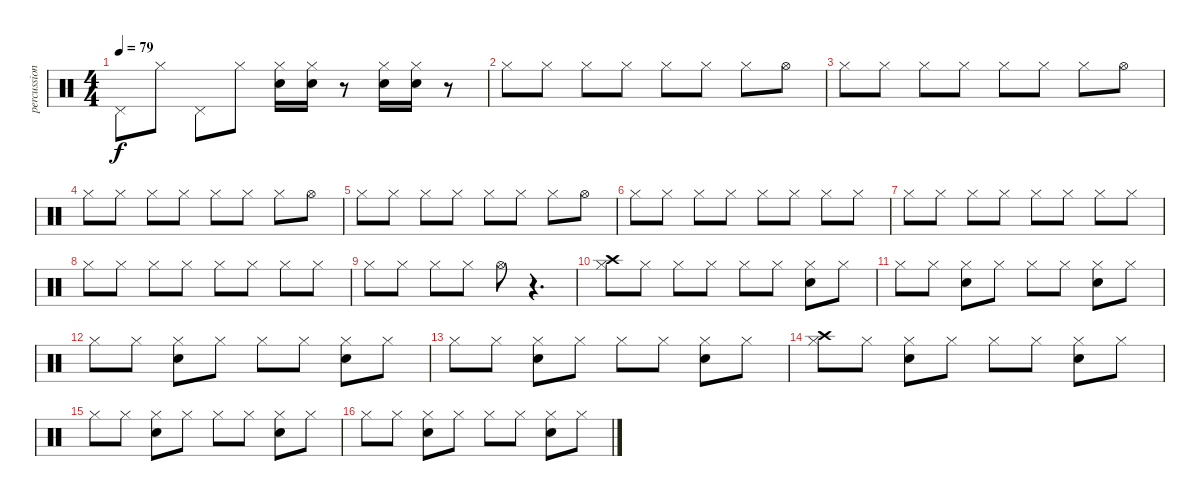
\track ("percussion" "percussion") {instrument percussion}
\staff {score}
\articulation defaults
\ts (4 4)
\tempo 79
\clef neutral
\ks c "Pedal Hi-Hat (hit)".8{dy f} "Hi-Hat (closed)".8 "Pedal Hi-Hat (hit)".8 "Hi-Hat (closed)".8
("Hi-Hat (closed)" "Snare (hit) 2").16 ("Hi-Hat (closed)" "Snare (hit) 2").16 r.8 ("Hi-Hat (closed)" "Snare (hit) 2").16 ("Hi-Hat (closed)" "Snare (hit) 2").16 r.8 |
"Hi-Hat (closed)".8 "Hi-Hat (closed)".8 "Hi-Hat (closed)".8 "Hi-Hat (closed)".8 "Hi-Hat (closed)".8 "Hi-Hat (closed)".8 "Hi-Hat (closed)".8 "Hi-Hat (open)".8 |
"Hi-Hat (closed)".8 "Hi-Hat (closed)".8 "Hi-Hat (closed)".8 "Hi-Hat (closed)".8 "Hi-Hat (closed)".8 "Hi-Hat (closed)".8 "Hi-Hat (closed)".8 "Hi-Hat (open)".8 |
"Hi-Hat (closed)".8 "Hi-Hat (closed)".8 "Hi-Hat (closed)".8 "Hi-Hat (closed)".8 "Hi-Hat (closed)".8 "Hi-Hat (closed)".8 "Hi-Hat (closed)".8 "Hi-Hat (open)".8 |
"Hi-Hat (closed)".8 "Hi-Hat (closed)".8 "Hi-Hat (closed)".8 "Hi-Hat (closed)".8 "Hi-Hat (closed)".8 "Hi-Hat (closed)".8 "Hi-Hat (closed)".8 "Hi-Hat (open)".8 |
"Hi-Hat (closed)".8 "Hi-Hat (closed)".8 "Hi-Hat (closed)".8 "Hi-Hat (closed)".8 "Hi-Hat (closed)".8 "Hi-Hat (closed)".8 "Hi-Hat (closed)".8 "Hi-Hat (closed)".8 |
"Hi-Hat (closed)".8 "Hi-Hat (closed)".8 "Hi-Hat (closed)".8 "Hi-Hat (closed)".8 "Hi-Hat (closed)".8 "Hi-Hat (closed)".8 "Hi-Hat (closed)".8 "Hi-Hat (closed)".8 |
"Hi-Hat (closed)".8 "Hi-Hat (closed)".8 "Hi-Hat (closed)".8 "Hi-Hat (closed)".8 "Hi-Hat (closed)".8 "Hi-Hat (closed)".8 "Hi-Hat (closed)".8 "Hi-Hat (closed)".8 |
"Hi-Hat (closed)".8 "Hi-Hat (closed)".8 "Hi-Hat (closed)".8 "Hi-Hat (closed)".8 "Hi-Hat (open)".8 r.4{d} |
("Crash high (hit)" "Hi-Hat (closed)").8 "Hi-Hat (closed)".8 "Hi-Hat (closed)".8 "Hi-Hat (closed)".8 "Hi-Hat (closed)".8 "Hi-Hat (closed)".8 ("Hi-Hat (closed)" "Snare (hit) 2").8 "Hi-Hat (closed)".8 |
"Hi-Hat (closed)".8 "Hi-Hat (closed)".8 ("Hi-Hat (closed)" "Snare (hit) 2").8 "Hi-Hat (closed)".8 "Hi-Hat (closed)".8 "Hi-Hat (closed)".8 ("Hi-Hat (closed)" "Snare (hit) 2").8 "Hi-Hat (closed)".8 |
"Hi-Hat (closed)".8 "Hi-Hat (closed)".8 ("Hi-Hat (closed)" "Snare (hit) 2").8 "Hi-Hat (closed)".8 "Hi-Hat (closed)".8 "Hi-Hat (closed)".8 ("Hi-Hat (closed)" "Snare (hit) 2").8 "Hi-Hat (closed)".8 |
"Hi-Hat (closed)".8 "Hi-Hat (closed)".8 ("Hi-Hat (closed)" "Snare (hit) 2").8 "Hi-Hat (closed)".8 "Hi-Hat (closed)".8 "Hi-Hat (closed)".8 ("Hi-Hat (closed)" "Snare (hit) 2").8 "Hi-Hat (closed)".8 |
("Crash high (hit)" "Hi-Hat (closed)").8 "Hi-Hat (closed)".8 ("Hi-Hat (closed)" "Snare (hit) 2").8 "Hi-Hat (closed)".8 "Hi-Hat (closed)".8 "Hi-Hat (closed)".8 ("Hi-Hat (closed)" "Snare (hit) 2").8 "Hi-Hat (closed)".8 |
"Hi-Hat (closed)".8 "Hi-Hat (closed)".8 ("Hi-Hat (closed)" "Snare (hit) 2").8 "Hi-Hat (closed)".8 "Hi-Hat (closed)".8 "Hi-Hat (closed)".8 ("Hi-Hat (closed)" "Snare (hit) 2").8 "Hi-Hat (closed)".8 |
"Hi-Hat (closed)".8 "Hi-Hat (closed)".8 ("Hi-Hat (closed)" "Snare (hit) 2").8 "Hi-Hat (closed)".8 "Hi-Hat (closed)".8 "Hi-Hat (closed)".8 ("Hi-Hat (closed)" "Snare (hit) 2").8 "Hi-Hat (closed)".8
